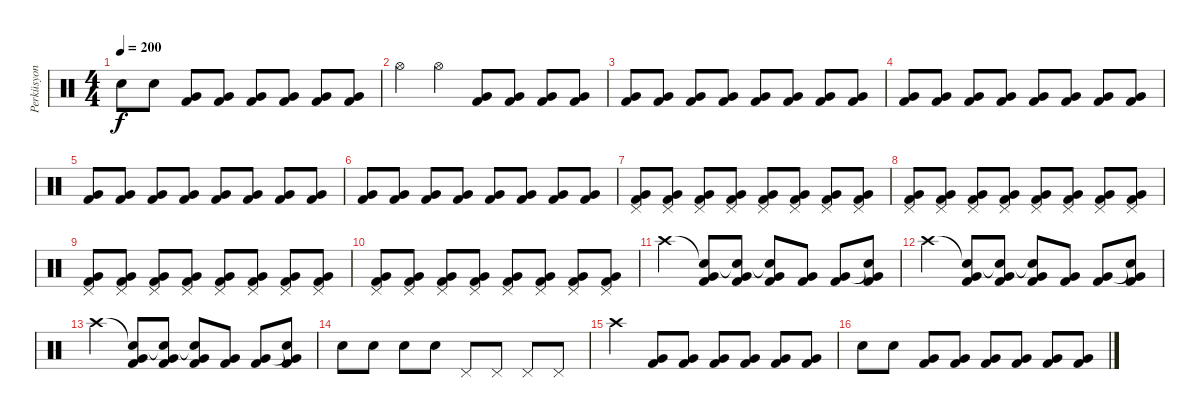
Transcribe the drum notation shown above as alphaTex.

\track ("Perküsyon" "Perküsyon") {instrument percussion}
\staff {score}
\articulation defaults
\ts (4 4)
\tempo 200
\clef neutral
\ks c "Snare (hit) 2".8{dy f} "Electric Snare (hit)".8
("Kick (hit) 2" "Very Low Tom (hit)").8 ("Kick (hit) 2" "Very Low Tom (hit)").8 ("Kick (hit) 2" "Very Low Tom (hit)").8 ("Kick (hit) 2" "Very Low Tom (hit)").8 ("Kick (hit) 2" "Very Low Tom (hit)").8 ("Kick (hit) 2" "Very Low Tom (hit)").8 |
"Hi-Hat (open)".4 "Hi-Hat (open)".4 ("Kick (hit) 2" "Very Low Tom (hit)").8 ("Kick (hit) 2" "Very Low Tom (hit)").8 ("Kick (hit) 2" "Very Low Tom (hit)").8 ("Kick (hit) 2" "Very Low Tom (hit)").8 |
("Very Low Tom (hit)" "Kick (hit) 2").8 ("Very Low Tom (hit)" "Kick (hit) 2").8 ("Very Low Tom (hit)" "Kick (hit) 2").8 ("Very Low Tom (hit)" "Kick (hit) 2").8 ("Very Low Tom (hit)" "Kick (hit) 2").8 ("Very Low Tom (hit)" "Kick (hit) 2").8 ("Very Low Tom (hit)" "Kick (hit) 2").8 ("Very Low Tom (hit)" "Kick (hit) 2").8 |
("Very Low Tom (hit)" "Kick (hit) 2").8 ("Very Low Tom (hit)" "Kick (hit) 2").8 ("Very Low Tom (hit)" "Kick (hit) 2").8 ("Very Low Tom (hit)" "Kick (hit) 2").8 ("Very Low Tom (hit)" "Kick (hit) 2").8 ("Very Low Tom (hit)" "Kick (hit) 2").8 ("Very Low Tom (hit)" "Kick (hit) 2").8 ("Very Low Tom (hit)" "Kick (hit) 2").8 |
("Very Low Tom (hit)" "Kick (hit) 2").8 ("Very Low Tom (hit)" "Kick (hit) 2").8 ("Very Low Tom (hit)" "Kick (hit) 2").8 ("Very Low Tom (hit)" "Kick (hit) 2").8 ("Very Low Tom (hit)" "Kick (hit) 2").8 ("Very Low Tom (hit)" "Kick (hit) 2").8 ("Very Low Tom (hit)" "Kick (hit) 2").8 ("Very Low Tom (hit)" "Kick (hit) 2").8 |
("Very Low Tom (hit)" "Kick (hit) 2").8 ("Very Low Tom (hit)" "Kick (hit) 2").8 ("Very Low Tom (hit)" "Kick (hit) 2").8 ("Very Low Tom (hit)" "Kick (hit) 2").8 ("Very Low Tom (hit)" "Kick (hit) 2").8 ("Very Low Tom (hit)" "Kick (hit) 2").8 ("Very Low Tom (hit)" "Kick (hit) 2").8 ("Very Low Tom (hit)" "Kick (hit) 2").8 |
("Pedal Hi-Hat (hit)" "Very Low Tom (hit)" "Kick (hit) 2").8 ("Pedal Hi-Hat (hit)" "Very Low Tom (hit)" "Kick (hit) 2").8 ("Pedal Hi-Hat (hit)" "Very Low Tom (hit)" "Kick (hit) 2").8 ("Pedal Hi-Hat (hit)" "Very Low Tom (hit)" "Kick (hit) 2").8 ("Pedal Hi-Hat (hit)" "Very Low Tom (hit)" "Kick (hit) 2").8 ("Pedal Hi-Hat (hit)" "Very Low Tom (hit)" "Kick (hit) 2").8 ("Pedal Hi-Hat (hit)" "Very Low Tom (hit)" "Kick (hit) 2").8 ("Pedal Hi-Hat (hit)" "Very Low Tom (hit)" "Kick (hit) 2").8 |
("Pedal Hi-Hat (hit)" "Very Low Tom (hit)" "Kick (hit) 2").8 ("Pedal Hi-Hat (hit)" "Very Low Tom (hit)" "Kick (hit) 2").8 ("Pedal Hi-Hat (hit)" "Very Low Tom (hit)" "Kick (hit) 2").8 ("Pedal Hi-Hat (hit)" "Very Low Tom (hit)" "Kick (hit) 2").8 ("Pedal Hi-Hat (hit)" "Very Low Tom (hit)" "Kick (hit) 2").8 ("Pedal Hi-Hat (hit)" "Very Low Tom (hit)" "Kick (hit) 2").8 ("Pedal Hi-Hat (hit)" "Very Low Tom (hit)" "Kick (hit) 2").8 ("Pedal Hi-Hat (hit)" "Very Low Tom (hit)" "Kick (hit) 2").8 |
("Pedal Hi-Hat (hit)" "Very Low Tom (hit)" "Kick (hit) 2").8 ("Pedal Hi-Hat (hit)" "Very Low Tom (hit)" "Kick (hit) 2").8 ("Pedal Hi-Hat (hit)" "Very Low Tom (hit)" "Kick (hit) 2").8 ("Pedal Hi-Hat (hit)" "Very Low Tom (hit)" "Kick (hit) 2").8 ("Pedal Hi-Hat (hit)" "Very Low Tom (hit)" "Kick (hit) 2").8 ("Pedal Hi-Hat (hit)" "Very Low Tom (hit)" "Kick (hit) 2").8 ("Pedal Hi-Hat (hit)" "Very Low Tom (hit)" "Kick (hit) 2").8 ("Pedal Hi-Hat (hit)" "Very Low Tom (hit)" "Kick (hit) 2").8 |
("Pedal Hi-Hat (hit)" "Very Low Tom (hit)" "Kick (hit) 2").8 ("Pedal Hi-Hat (hit)" "Very Low Tom (hit)" "Kick (hit) 2").8 ("Pedal Hi-Hat (hit)" "Very Low Tom (hit)" "Kick (hit) 2").8 ("Pedal Hi-Hat (hit)" "Very Low Tom (hit)" "Kick (hit) 2").8 ("Pedal Hi-Hat (hit)" "Very Low Tom (hit)" "Kick (hit) 2").8 ("Pedal Hi-Hat (hit)" "Very Low Tom (hit)" "Kick (hit) 2").8 ("Pedal Hi-Hat (hit)" "Very Low Tom (hit)" "Kick (hit) 2").8 ("Pedal Hi-Hat (hit)" "Very Low Tom (hit)" "Kick (hit) 2").8 |
"Crash high (hit)".4 ("Snare (hit)"{t} "Very Low Tom (hit)" "Kick (hit) 2").8 ("Snare (hit)"{t} "Very Low Tom (hit)" "Kick (hit) 2").8 ("Snare (hit)"{t} "Very Low Tom (hit)" "Kick (hit) 2").8 ("Very Low Tom (hit)" "Kick (hit) 2").8 ("Very Low Tom (hit)" "Kick (hit) 2").8 ("Snare (hit)"{t} "Very Low Tom (hit)" "Kick (hit) 2").8 |
"Crash high (hit)".4 ("Snare (hit)"{t} "Very Low Tom (hit)" "Kick (hit) 2").8 ("Snare (hit)"{t} "Very Low Tom (hit)" "Kick (hit) 2").8 ("Snare (hit)"{t} "Very Low Tom (hit)" "Kick (hit) 2").8 ("Very Low Tom (hit)" "Kick (hit) 2").8 ("Very Low Tom (hit)" "Kick (hit) 2").8 ("Snare (hit)"{t} "Very Low Tom (hit)" "Kick (hit) 2").8 |
"Crash high (hit)".4 ("Snare (hit)"{t} "Very Low Tom (hit)" "Kick (hit) 2").8 ("Snare (hit)"{t} "Very Low Tom (hit)" "Kick (hit) 2").8 ("Snare (hit)"{t} "Very Low Tom (hit)" "Kick (hit) 2").8 ("Very Low Tom (hit)" "Kick (hit) 2").8 ("Very Low Tom (hit)" "Kick (hit) 2").8 ("Snare (hit)"{t} "Very Low Tom (hit)" "Kick (hit) 2").8 |
"Snare (hit) 2".8 "Electric Snare (hit)".8 "Snare (hit) 2".8 "Electric Snare (hit)".8 "Pedal Hi-Hat (hit)".8 "Pedal Hi-Hat (hit)".8 "Pedal Hi-Hat (hit)".8 "Pedal Hi-Hat (hit)".8 |
"Crash high (hit)".4 ("Very Low Tom (hit)" "Kick (hit) 2").8 ("Very Low Tom (hit)" "Kick (hit) 2").8 ("Very Low Tom (hit)" "Kick (hit) 2").8 ("Very Low Tom (hit)" "Kick (hit) 2").8 ("Very Low Tom (hit)" "Kick (hit) 2").8 ("Very Low Tom (hit)" "Kick (hit) 2").8 |
"Snare (hit) 2".8 "Electric Snare (hit)".8 ("Very Low Tom (hit)" "Kick (hit) 2").8 ("Very Low Tom (hit)" "Kick (hit) 2").8 ("Very Low Tom (hit)" "Kick (hit) 2").8 ("Very Low Tom (hit)" "Kick (hit) 2").8 ("Very Low Tom (hit)" "Kick (hit) 2").8 ("Very Low Tom (hit)" "Kick (hit) 2").8
